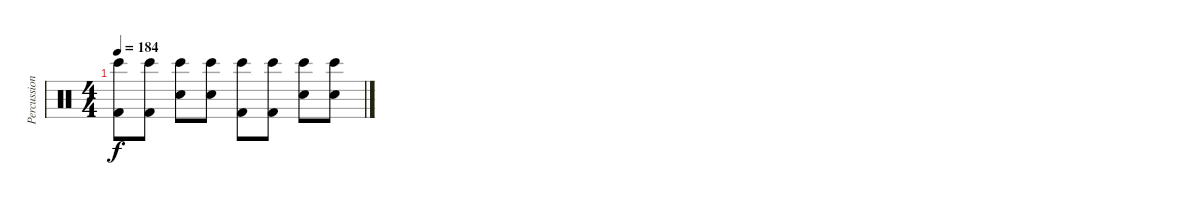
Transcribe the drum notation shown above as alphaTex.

\track ("Percussion" "Percussion") {instrument percussion}
\staff {score}
\articulation defaults
\ts (4 4)
\tempo 184
\clef neutral
\ks c
("Bongo High (hit)" "Kick (hit) 2").8{dy f volume 3} ("Bongo High (hit)" "Kick (hit) 2").8 ("Bongo High (hit)" "Snare (hit) 2").8 ("Bongo High (hit)" "Snare (hit) 2").8 ("Bongo High (hit)" "Kick (hit) 2").8 ("Bongo High (hit)" "Kick (hit) 2").8 ("Bongo High (hit)" "Snare (hit) 2").8 ("Bongo High (hit)" "Snare (hit) 2").8
